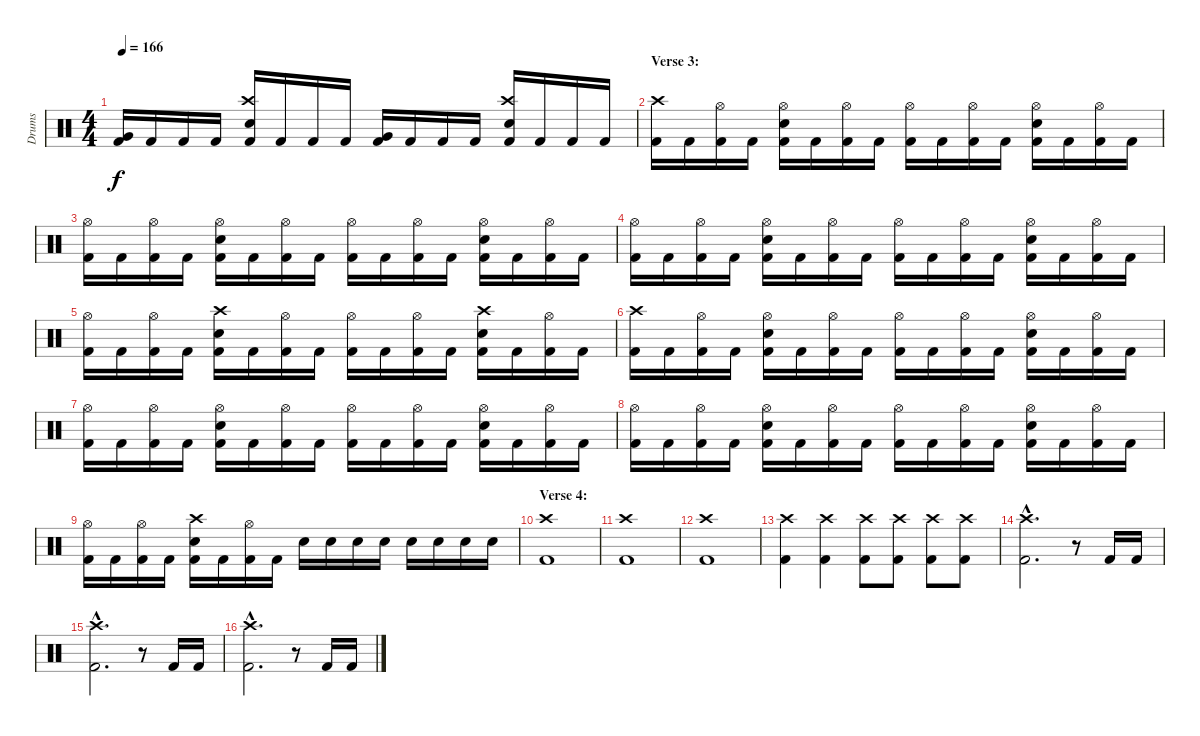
\track ("Drums" "Drums") {instrument percussion}
\staff {score}
\articulation defaults
\ts (4 4)
\tempo 166
\clef neutral
\ks c
("Very Low Tom (hit)" "Kick (hit) 2").16{dy f} "Kick (hit) 2".16 "Kick (hit) 2".16 "Kick (hit) 2".16 ("Crash high (hit)" "Electric Snare (hit)" "Kick (hit) 2").16 "Kick (hit) 2".16 "Kick (hit) 2".16 "Kick (hit) 2".16 ("Very Low Tom (hit)" "Kick (hit) 2").16 "Kick (hit) 2".16 "Kick (hit) 2".16 "Kick (hit) 2".16 ("Crash high (hit)" "Electric Snare (hit)" "Kick (hit) 2").16 "Kick (hit) 2".16 "Kick (hit) 2".16 "Kick (hit) 2".16 |
\section ("" "Verse 3:")
("Crash high (hit)" "Kick (hit) 2").16 "Kick (hit) 2".16 ("Hi-Hat (open)" "Kick (hit) 2").16 "Kick (hit) 2".16 ("Hi-Hat (open)" "Electric Snare (hit)" "Kick (hit) 2").16 "Kick (hit) 2".16 ("Hi-Hat (open)" "Kick (hit) 2").16 "Kick (hit) 2".16 ("Hi-Hat (open)" "Kick (hit) 2").16 "Kick (hit) 2".16 ("Hi-Hat (open)" "Kick (hit) 2").16 "Kick (hit) 2".16 ("Hi-Hat (open)" "Electric Snare (hit)" "Kick (hit) 2").16 "Kick (hit) 2".16 ("Hi-Hat (open)" "Kick (hit) 2").16 "Kick (hit) 2".16 |
("Hi-Hat (open)" "Kick (hit) 2").16 "Kick (hit) 2".16 ("Hi-Hat (open)" "Kick (hit) 2").16 "Kick (hit) 2".16 ("Hi-Hat (open)" "Electric Snare (hit)" "Kick (hit) 2").16 "Kick (hit) 2".16 ("Hi-Hat (open)" "Kick (hit) 2").16 "Kick (hit) 2".16 ("Hi-Hat (open)" "Kick (hit) 2").16 "Kick (hit) 2".16 ("Hi-Hat (open)" "Kick (hit) 2").16 "Kick (hit) 2".16 ("Hi-Hat (open)" "Electric Snare (hit)" "Kick (hit) 2").16 "Kick (hit) 2".16 ("Hi-Hat (open)" "Kick (hit) 2").16 "Kick (hit) 2".16 |
("Hi-Hat (open)" "Kick (hit) 2").16 "Kick (hit) 2".16 ("Hi-Hat (open)" "Kick (hit) 2").16 "Kick (hit) 2".16 ("Hi-Hat (open)" "Electric Snare (hit)" "Kick (hit) 2").16 "Kick (hit) 2".16 ("Hi-Hat (open)" "Kick (hit) 2").16 "Kick (hit) 2".16 ("Hi-Hat (open)" "Kick (hit) 2").16 "Kick (hit) 2".16 ("Hi-Hat (open)" "Kick (hit) 2").16 "Kick (hit) 2".16 ("Hi-Hat (open)" "Electric Snare (hit)" "Kick (hit) 2").16 "Kick (hit) 2".16 ("Hi-Hat (open)" "Kick (hit) 2").16 "Kick (hit) 2".16 |
("Hi-Hat (open)" "Kick (hit) 2").16 "Kick (hit) 2".16 ("Hi-Hat (open)" "Kick (hit) 2").16 "Kick (hit) 2".16 ("Crash high (hit)" "Electric Snare (hit)" "Kick (hit) 2").16 "Kick (hit) 2".16 ("Hi-Hat (open)" "Kick (hit) 2").16 "Kick (hit) 2".16 ("Hi-Hat (open)" "Kick (hit) 2").16 "Kick (hit) 2".16 ("Hi-Hat (open)" "Kick (hit) 2").16 "Kick (hit) 2".16 ("Crash high (hit)" "Electric Snare (hit)" "Kick (hit) 2").16 "Kick (hit) 2".16 ("Hi-Hat (open)" "Kick (hit) 2").16 "Kick (hit) 2".16 |
("Crash high (hit)" "Kick (hit) 2").16 "Kick (hit) 2".16 ("Hi-Hat (open)" "Kick (hit) 2").16 "Kick (hit) 2".16 ("Hi-Hat (open)" "Electric Snare (hit)" "Kick (hit) 2").16 "Kick (hit) 2".16 ("Hi-Hat (open)" "Kick (hit) 2").16 "Kick (hit) 2".16 ("Hi-Hat (open)" "Kick (hit) 2").16 "Kick (hit) 2".16 ("Hi-Hat (open)" "Kick (hit) 2").16 "Kick (hit) 2".16 ("Hi-Hat (open)" "Electric Snare (hit)" "Kick (hit) 2").16 "Kick (hit) 2".16 ("Hi-Hat (open)" "Kick (hit) 2").16 "Kick (hit) 2".16 |
("Hi-Hat (open)" "Kick (hit) 2").16 "Kick (hit) 2".16 ("Hi-Hat (open)" "Kick (hit) 2").16 "Kick (hit) 2".16 ("Hi-Hat (open)" "Electric Snare (hit)" "Kick (hit) 2").16 "Kick (hit) 2".16 ("Hi-Hat (open)" "Kick (hit) 2").16 "Kick (hit) 2".16 ("Hi-Hat (open)" "Kick (hit) 2").16 "Kick (hit) 2".16 ("Hi-Hat (open)" "Kick (hit) 2").16 "Kick (hit) 2".16 ("Hi-Hat (open)" "Electric Snare (hit)" "Kick (hit) 2").16 "Kick (hit) 2".16 ("Hi-Hat (open)" "Kick (hit) 2").16 "Kick (hit) 2".16 |
("Hi-Hat (open)" "Kick (hit) 2").16 "Kick (hit) 2".16 ("Hi-Hat (open)" "Kick (hit) 2").16 "Kick (hit) 2".16 ("Hi-Hat (open)" "Electric Snare (hit)" "Kick (hit) 2").16 "Kick (hit) 2".16 ("Hi-Hat (open)" "Kick (hit) 2").16 "Kick (hit) 2".16 ("Hi-Hat (open)" "Kick (hit) 2").16 "Kick (hit) 2".16 ("Hi-Hat (open)" "Kick (hit) 2").16 "Kick (hit) 2".16 ("Hi-Hat (open)" "Electric Snare (hit)" "Kick (hit) 2").16 "Kick (hit) 2".16 ("Hi-Hat (open)" "Kick (hit) 2").16 "Kick (hit) 2".16 |
("Hi-Hat (open)" "Kick (hit) 2").16 "Kick (hit) 2".16 ("Hi-Hat (open)" "Kick (hit) 2").16 "Kick (hit) 2".16 ("Crash high (hit)" "Electric Snare (hit)" "Kick (hit) 2").16 "Kick (hit) 2".16 ("Hi-Hat (open)" "Kick (hit) 2").16 "Kick (hit) 2".16 "Electric Snare (hit)".16 "Electric Snare (hit)".16 "Electric Snare (hit)".16 "Electric Snare (hit)".16 "Electric Snare (hit)".16 "Electric Snare (hit)".16 "Electric Snare (hit)".16 "Electric Snare (hit)".16 |
\section ("" "Verse 4:")
("Crash high (hit)" "Kick (hit) 2").1 |
("Crash high (hit)" "Kick (hit) 2").1 |
("Crash high (hit)" "Kick (hit) 2").1 |
("Crash high (hit)" "Kick (hit) 2").4 ("Crash high (hit)" "Kick (hit) 2").4 ("Crash high (hit)" "Kick (hit) 2").8 ("Crash high (hit)" "Kick (hit) 2").8 ("Crash high (hit)" "Kick (hit) 2").8 ("Crash high (hit)" "Kick (hit) 2").8 |
("Crash high (hit)"{hac} "Kick (hit) 2"{hac}).2{d} r.8 "Kick (hit) 2".16 "Kick (hit) 2".16 |
("Crash high (hit)"{hac} "Kick (hit) 2"{hac}).2{d} r.8 "Kick (hit) 2".16 "Kick (hit) 2".16 |
("Crash high (hit)"{hac} "Kick (hit) 2"{hac}).2{d} r.8 "Kick (hit) 2".16 "Kick (hit) 2".16
